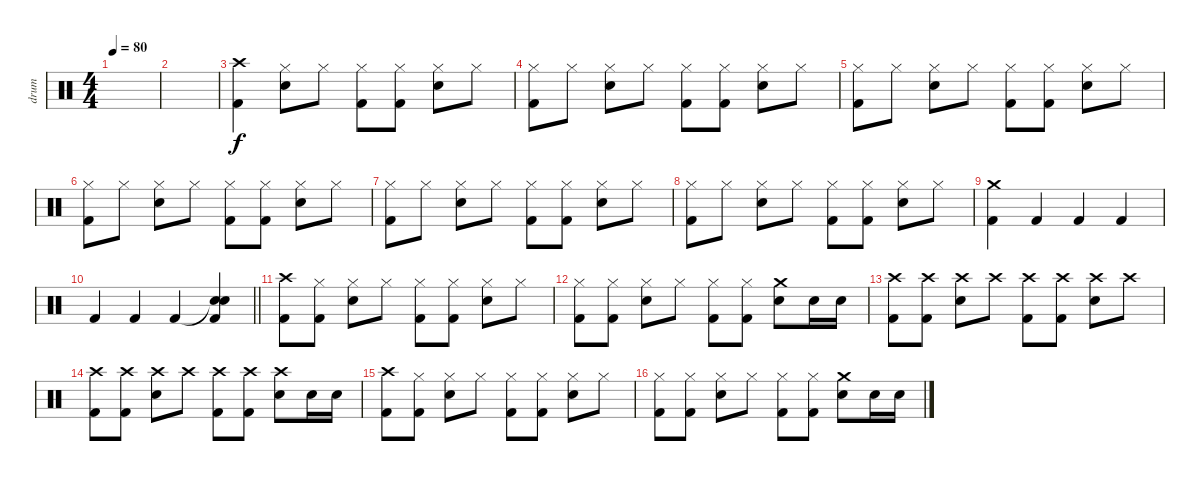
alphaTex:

\track ("drum" "drum") {instrument percussion}
\staff {score}
\articulation defaults
\ts (4 4)
\tempo 80
\clef neutral
\ks c
|
|
("Crash high (hit)" "Kick (hit) 2").4 ("Hi-Hat (closed)" "Snare (hit) 2").8 "Hi-Hat (closed)".8 ("Hi-Hat (closed)" "Kick (hit) 2").8 ("Hi-Hat (closed)" "Kick (hit) 2").8 ("Hi-Hat (closed)" "Snare (hit) 2").8 "Hi-Hat (closed)".8 |
("Hi-Hat (closed)" "Kick (hit) 2").8 "Hi-Hat (closed)".8 ("Hi-Hat (closed)" "Snare (hit) 2").8 "Hi-Hat (closed)".8 ("Hi-Hat (closed)" "Kick (hit) 2").8 ("Hi-Hat (closed)" "Kick (hit) 2").8 ("Hi-Hat (closed)" "Snare (hit) 2").8 "Hi-Hat (closed)".8 |
("Hi-Hat (closed)" "Kick (hit) 2").8 "Hi-Hat (closed)".8 ("Hi-Hat (closed)" "Snare (hit) 2").8 "Hi-Hat (closed)".8 ("Hi-Hat (closed)" "Kick (hit) 2").8 ("Hi-Hat (closed)" "Kick (hit) 2").8 ("Hi-Hat (closed)" "Snare (hit) 2").8 "Hi-Hat (closed)".8 |
("Hi-Hat (closed)" "Kick (hit) 2").8 "Hi-Hat (closed)".8 ("Hi-Hat (closed)" "Snare (hit) 2").8 "Hi-Hat (closed)".8 ("Hi-Hat (closed)" "Kick (hit) 2").8 ("Hi-Hat (closed)" "Kick (hit) 2").8 ("Hi-Hat (closed)" "Snare (hit) 2").8 "Hi-Hat (closed)".8 |
("Hi-Hat (closed)" "Kick (hit) 2").8 "Hi-Hat (closed)".8 ("Hi-Hat (closed)" "Snare (hit) 2").8 "Hi-Hat (closed)".8 ("Hi-Hat (closed)" "Kick (hit) 2").8 ("Hi-Hat (closed)" "Kick (hit) 2").8 ("Hi-Hat (closed)" "Snare (hit) 2").8 "Hi-Hat (closed)".8 |
("Hi-Hat (closed)" "Kick (hit) 2").8 "Hi-Hat (closed)".8 ("Hi-Hat (closed)" "Snare (hit) 2").8 "Hi-Hat (closed)".8 ("Hi-Hat (closed)" "Kick (hit) 2").8 ("Hi-Hat (closed)" "Kick (hit) 2").8 ("Hi-Hat (closed)" "Snare (hit) 2").8 "Hi-Hat (closed)".8 |
("Crash medium (hit)" "Kick (hit) 2").4 "Kick (hit) 2".4 "Kick (hit) 2".4 "Kick (hit) 2".4 |
\barLineRight lightlight "Kick (hit) 2".4 "Kick (hit) 2".4 "Kick (hit) 2".4
("Snare (hit)"{t} "Snare (hit) 2" "Kick (hit) 2").4 |
\section ("" "")
("Crash high (hit)" "Kick (hit) 2").8 ("Hi-Hat (closed)" "Kick (hit) 2").8 ("Hi-Hat (closed)" "Snare (hit) 2").8 "Hi-Hat (closed)".8 ("Hi-Hat (closed)" "Kick (hit) 2").8 ("Hi-Hat (closed)" "Kick (hit) 2").8 ("Hi-Hat (closed)" "Snare (hit) 2").8 "Hi-Hat (closed)".8 |
("Hi-Hat (closed)" "Kick (hit) 2").8 ("Hi-Hat (closed)" "Kick (hit) 2").8 ("Hi-Hat (closed)" "Snare (hit) 2").8 "Hi-Hat (closed)".8 ("Hi-Hat (closed)" "Kick (hit) 2").8 ("Hi-Hat (closed)" "Kick (hit) 2").8 ("Crash medium (hit)" "Snare (hit) 2").8 "Snare (hit) 2".16 "Snare (hit) 2".16 |
("Crash high (hit)" "Kick (hit) 2").8 ("Crash high (hit)" "Kick (hit) 2").8 ("Crash high (hit)" "Snare (hit) 2").8 "Crash high (hit)".8 ("Crash high (hit)" "Kick (hit) 2").8 ("Crash high (hit)" "Kick (hit) 2").8 ("Crash high (hit)" "Snare (hit) 2").8 "Crash high (hit)".8 |
("Crash high (hit)" "Kick (hit) 2").8 ("Crash high (hit)" "Kick (hit) 2").8 ("Crash high (hit)" "Snare (hit) 2").8 "Crash high (hit)".8 ("Crash high (hit)" "Kick (hit) 2").8 ("Crash high (hit)" "Kick (hit) 2").8 ("Crash high (hit)" "Snare (hit) 2").8 "Snare (hit) 2".16 "Snare (hit) 2".16 |
("Crash high (hit)" "Kick (hit) 2").8 ("Hi-Hat (closed)" "Kick (hit) 2").8 ("Hi-Hat (closed)" "Snare (hit) 2").8 "Hi-Hat (closed)".8 ("Hi-Hat (closed)" "Kick (hit) 2").8 ("Hi-Hat (closed)" "Kick (hit) 2").8 ("Hi-Hat (closed)" "Snare (hit) 2").8 "Hi-Hat (closed)".8 |
("Hi-Hat (closed)" "Kick (hit) 2").8 ("Hi-Hat (closed)" "Kick (hit) 2").8 ("Hi-Hat (closed)" "Snare (hit) 2").8 "Hi-Hat (closed)".8 ("Hi-Hat (closed)" "Kick (hit) 2").8 ("Hi-Hat (closed)" "Kick (hit) 2").8 ("Crash medium (hit)" "Snare (hit) 2").8 "Snare (hit) 2".16 "Snare (hit) 2".16
